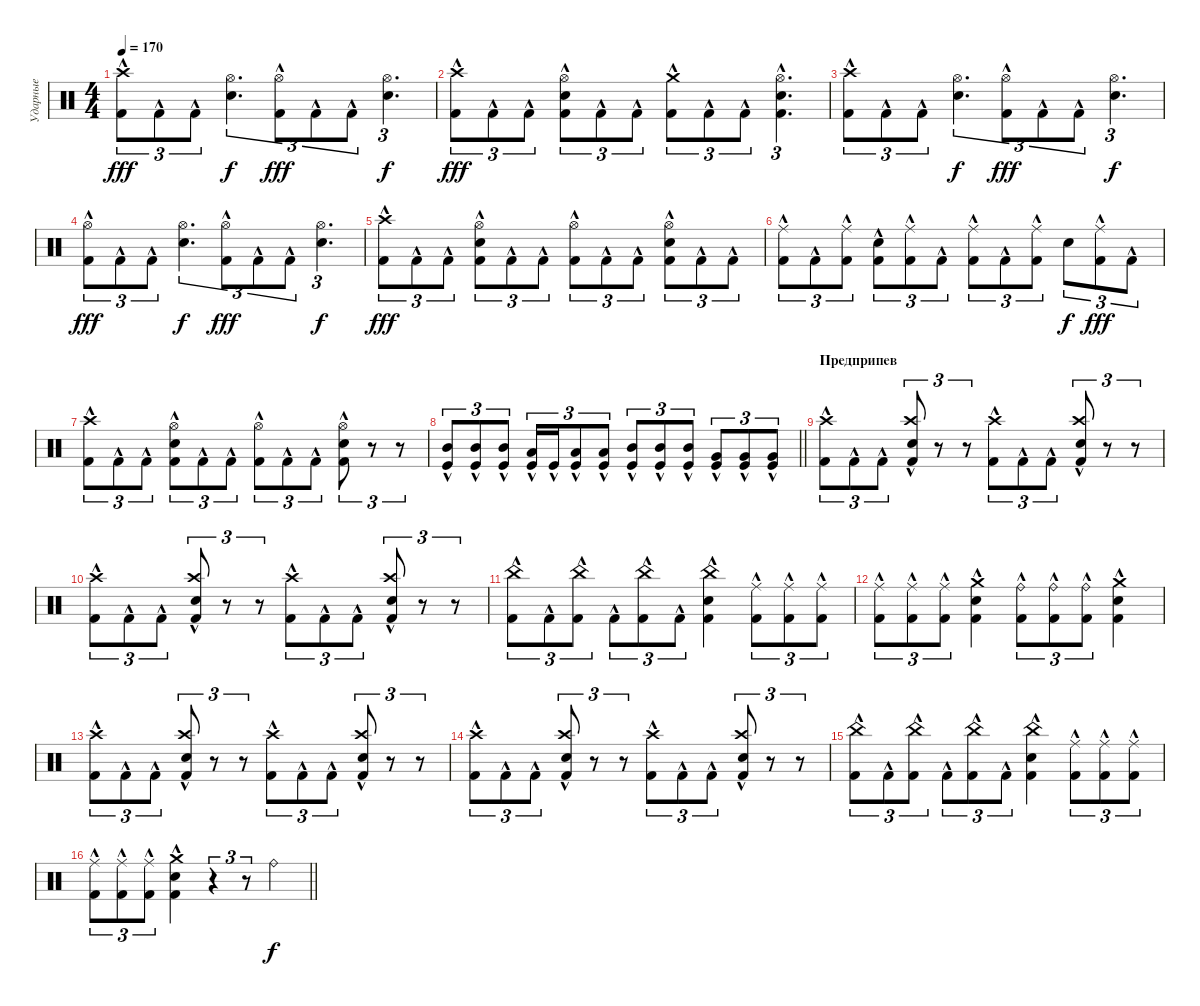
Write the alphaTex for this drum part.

\track ("Ударные" "Ударные") {instrument percussion}
\staff {score}
\articulation defaults
\ts (4 4)
\tempo 170
\clef neutral
\ks c
("Kick (hit) 2"{hac} "Crash high (hit)").8{tu (3 2) dy fff} "Kick (hit) 2"{hac}.8{tu (3 2)} "Kick (hit) 2"{hac}.8{tu (3 2)} ("Snare (hit) 2" "Hi-Hat (open)").4{d tu (3 2) dy f} ("Kick (hit) 2"{hac} "Hi-Hat (open)").8{tu (3 2) dy fff} "Kick (hit) 2"{hac}.8{tu (3 2)} "Kick (hit) 2"{hac}.8{tu (3 2)} ("Snare (hit) 2" "Hi-Hat (open)").4{d tu (3 2) dy f} |
("Kick (hit) 2"{hac} "Crash high (hit)").8{tu (3 2) dy fff} "Kick (hit) 2"{hac}.8{tu (3 2)} "Kick (hit) 2"{hac}.8{tu (3 2)} ("Kick (hit) 2"{hac} "Snare (hit) 2" "Hi-Hat (open)").8{tu (3 2)} "Kick (hit) 2"{hac}.8{tu (3 2)} "Kick (hit) 2"{hac}.8{tu (3 2)} ("Kick (hit) 2"{hac} "Crash medium (hit)").8{tu (3 2)} "Kick (hit) 2"{hac}.8{tu (3 2)} "Kick (hit) 2"{hac}.8{tu (3 2)} ("Kick (hit) 2"{hac} "Snare (hit) 2" "Hi-Hat (open)").4{d tu (3 2)} |
("Kick (hit) 2"{hac} "Crash high (hit)").8{tu (3 2)} "Kick (hit) 2"{hac}.8{tu (3 2)} "Kick (hit) 2"{hac}.8{tu (3 2)} ("Snare (hit) 2" "Hi-Hat (open)").4{d tu (3 2) dy f} ("Kick (hit) 2"{hac} "Hi-Hat (open)").8{tu (3 2) dy fff} "Kick (hit) 2"{hac}.8{tu (3 2)} "Kick (hit) 2"{hac}.8{tu (3 2)} ("Snare (hit) 2" "Hi-Hat (open)").4{d tu (3 2) dy f} |
("Kick (hit) 2"{hac} "Hi-Hat (open)").8{tu (3 2) dy fff} "Kick (hit) 2"{hac}.8{tu (3 2)} "Kick (hit) 2"{hac}.8{tu (3 2)} ("Snare (hit) 2" "Hi-Hat (open)").4{d tu (3 2) dy f} ("Kick (hit) 2"{hac} "Hi-Hat (open)").8{tu (3 2) dy fff} "Kick (hit) 2"{hac}.8{tu (3 2)} "Kick (hit) 2"{hac}.8{tu (3 2)} ("Snare (hit) 2" "Hi-Hat (open)").4{d tu (3 2) dy f} |
("Kick (hit) 2"{hac} "Crash high (hit)").8{tu (3 2) dy fff} "Kick (hit) 2"{hac}.8{tu (3 2)} "Kick (hit) 2"{hac}.8{tu (3 2)} ("Kick (hit) 2"{hac} "Snare (hit) 2" "Hi-Hat (open)").8{tu (3 2)} "Kick (hit) 2"{hac}.8{tu (3 2)} "Kick (hit) 2"{hac}.8{tu (3 2)} ("Kick (hit) 2"{hac} "Hi-Hat (open)").8{tu (3 2)} "Kick (hit) 2"{hac}.8{tu (3 2)} "Kick (hit) 2"{hac}.8{tu (3 2)} ("Kick (hit) 2"{hac} "Snare (hit) 2" "Hi-Hat (open)").8{tu (3 2)} "Kick (hit) 2"{hac}.8{tu (3 2)} "Kick (hit) 2"{hac}.8{tu (3 2)} |
("Kick (hit) 2"{hac} "Ride (middle)"{hac}).8{tu (3 2)} "Kick (hit) 2"{hac}.8{tu (3 2)} ("Ride (middle)"{hac} "Kick (hit) 2"{hac}).8{tu (3 2)} ("Kick (hit) 2"{hac} "Snare (hit) 2").8{tu (3 2)} ("Ride (middle)"{hac} "Kick (hit) 2"{hac}).8{tu (3 2)} "Kick (hit) 2"{hac}.8{tu (3 2)} ("Kick (hit) 2"{hac} "Ride (middle)"{hac}).8{tu (3 2)} "Kick (hit) 2"{hac}.8{tu (3 2)} ("Ride (middle)"{hac} "Kick (hit) 2"{hac}).8{tu (3 2)} "Snare (hit) 2".8{tu (3 2) dy f} ("Ride (middle)"{hac} "Kick (hit) 2"{hac}).8{tu (3 2) dy fff} "Kick (hit) 2"{hac}.8{tu (3 2)} |
("Kick (hit) 2"{hac} "Crash high (hit)").8{tu (3 2)} "Kick (hit) 2"{hac}.8{tu (3 2)} "Kick (hit) 2"{hac}.8{tu (3 2)} ("Kick (hit) 2"{hac} "Snare (hit) 2" "Hi-Hat (open)").8{tu (3 2)} "Kick (hit) 2"{hac}.8{tu (3 2)} "Kick (hit) 2"{hac}.8{tu (3 2)} ("Kick (hit) 2"{hac} "Hi-Hat (open)").8{tu (3 2)} "Kick (hit) 2"{hac}.8{tu (3 2)} "Kick (hit) 2"{hac}.8{tu (3 2)} ("Kick (hit) 2"{hac} "Snare (hit) 2" "Hi-Hat (open)").8{tu (3 2)} r.8{tu (3 2)} r.8{tu (3 2)} |
\barLineRight lightlight
("Mid Tom (hit)"{hac} "Kick (hit)"{hac}).8{tu (3 2)} ("Mid Tom (hit)"{hac} "Kick (hit)"{hac}).8{tu (3 2)} ("Mid Tom (hit)"{hac} "Kick (hit)"{hac}).8{tu (3 2)} ("Low Tom (hit)"{hac} "Kick (hit)"{hac}).16{tu (3 2)} "Kick (hit)"{hac}.16{tu (3 2)} ("Low Tom (hit)"{hac} "Kick (hit)"{hac}).8{tu (3 2)} ("Low Tom (hit)"{hac} "Kick (hit)"{hac}).8{tu (3 2)} ("Mid Tom (hit)"{hac} "Kick (hit)"{hac}).8{tu (3 2)} ("Mid Tom (hit)"{hac} "Kick (hit)"{hac}).8{tu (3 2)} ("Mid Tom (hit)"{hac} "Kick (hit)"{hac}).8{tu (3 2)} ("Very Low Tom (hit)"{hac} "Kick (hit)"{hac}).8{tu (3 2)} ("Very Low Tom (hit)"{hac} "Kick (hit)"{hac}).8{tu (3 2)} ("Very Low Tom (hit)"{hac} "Kick (hit)"{hac}).8{tu (3 2)} |
\section ("" "Предприпев")
("Kick (hit) 2"{hac} "Crash high (hit)"{hac}).8{tu (3 2)} "Kick (hit) 2"{hac}.8{tu (3 2)} "Kick (hit) 2"{hac}.8{tu (3 2)} ("Kick (hit) 2"{hac} "Snare (hit) 2" "Crash high (hit)").8{tu (3 2)} r.8{tu (3 2)} r.8{tu (3 2)} ("Kick (hit) 2"{hac} "Crash high (hit)").8{tu (3 2)} "Kick (hit) 2"{hac}.8{tu (3 2)} "Kick (hit) 2"{hac}.8{tu (3 2)} ("Kick (hit) 2"{hac} "Snare (hit) 2" "Crash high (hit)").8{tu (3 2)} r.8{tu (3 2)} r.8{tu (3 2)} |
("Kick (hit) 2"{hac} "Crash high (hit)").8{tu (3 2)} "Kick (hit) 2"{hac}.8{tu (3 2)} "Kick (hit) 2"{hac}.8{tu (3 2)} ("Kick (hit) 2"{hac} "Snare (hit) 2" "Crash high (hit)").8{tu (3 2)} r.8{tu (3 2)} r.8{tu (3 2)} ("Kick (hit) 2"{hac} "Crash high (hit)").8{tu (3 2)} "Kick (hit) 2"{hac}.8{tu (3 2)} "Kick (hit) 2"{hac}.8{tu (3 2)} ("Kick (hit) 2"{hac} "Snare (hit) 2" "Crash high (hit)").8{tu (3 2)} r.8{tu (3 2)} r.8{tu (3 2)} |
("Kick (hit) 2"{hac} "China (hit)"{hac}).8{tu (3 2)} "Kick (hit) 2"{hac}.8{tu (3 2)} ("Kick (hit) 2"{hac} "China (hit)"{hac}).8{tu (3 2)} "Kick (hit) 2"{hac}.8{tu (3 2)} ("Kick (hit) 2"{hac} "China (hit)"{hac}).8{tu (3 2)} "Kick (hit) 2"{hac}.8{tu (3 2)} ("Kick (hit) 2"{hac} "China (hit)"{hac} "Snare (hit) 2").4 ("Kick (hit) 2"{hac} "Ride (middle)"{hac}).8{tu (3 2)} ("Kick (hit) 2"{hac} "Ride (middle)"{hac}).8{tu (3 2)} ("Kick (hit) 2"{hac} "Ride (middle)"{hac}).8{tu (3 2)} |
("Kick (hit) 2"{hac} "Ride (middle)"{hac}).8{tu (3 2)} ("Kick (hit) 2"{hac} "Ride (middle)"{hac}).8{tu (3 2)} ("Kick (hit) 2"{hac} "Ride (middle)"{hac}).8{tu (3 2)} ("Kick (hit) 2"{hac} "Crash medium (hit)" "Snare (hit) 2").4 ("Kick (hit) 2"{hac} "Ride (bell)"{hac}).8{tu (3 2)} ("Kick (hit) 2"{hac} "Ride (bell)"{hac}).8{tu (3 2)} ("Kick (hit) 2"{hac} "Ride (bell)"{hac}).8{tu (3 2)} ("Kick (hit) 2"{hac} "Crash medium (hit)" "Snare (hit) 2").4 |
("Kick (hit) 2"{hac} "Crash high (hit)").8{tu (3 2)} "Kick (hit) 2"{hac}.8{tu (3 2)} "Kick (hit) 2"{hac}.8{tu (3 2)} ("Kick (hit) 2"{hac} "Snare (hit) 2" "Crash high (hit)").8{tu (3 2)} r.8{tu (3 2)} r.8{tu (3 2)} ("Kick (hit) 2"{hac} "Crash high (hit)").8{tu (3 2)} "Kick (hit) 2"{hac}.8{tu (3 2)} "Kick (hit) 2"{hac}.8{tu (3 2)} ("Kick (hit) 2"{hac} "Snare (hit) 2" "Crash high (hit)").8{tu (3 2)} r.8{tu (3 2)} r.8{tu (3 2)} |
("Kick (hit) 2"{hac} "Crash high (hit)").8{tu (3 2)} "Kick (hit) 2"{hac}.8{tu (3 2)} "Kick (hit) 2"{hac}.8{tu (3 2)} ("Kick (hit) 2"{hac} "Snare (hit) 2" "Crash high (hit)").8{tu (3 2)} r.8{tu (3 2)} r.8{tu (3 2)} ("Kick (hit) 2"{hac} "Crash high (hit)").8{tu (3 2)} "Kick (hit) 2"{hac}.8{tu (3 2)} "Kick (hit) 2"{hac}.8{tu (3 2)} ("Kick (hit) 2"{hac} "Snare (hit) 2" "Crash high (hit)").8{tu (3 2)} r.8{tu (3 2)} r.8{tu (3 2)} |
("Kick (hit) 2"{hac} "China (hit)"{hac}).8{tu (3 2)} "Kick (hit) 2"{hac}.8{tu (3 2)} ("Kick (hit) 2"{hac} "China (hit)"{hac}).8{tu (3 2)} "Kick (hit) 2"{hac}.8{tu (3 2)} ("Kick (hit) 2"{hac} "China (hit)"{hac}).8{tu (3 2)} "Kick (hit) 2"{hac}.8{tu (3 2)} ("Kick (hit) 2"{hac} "China (hit)"{hac} "Snare (hit) 2").4 ("Kick (hit) 2"{hac} "Ride (middle)"{hac}).8{tu (3 2)} ("Kick (hit) 2"{hac} "Ride (middle)"{hac}).8{tu (3 2)} ("Kick (hit) 2"{hac} "Ride (middle)"{hac}).8{tu (3 2)} |
\barLineRight lightlight
("Kick (hit) 2"{hac} "Ride (middle)"{hac}).8{tu (3 2)} ("Kick (hit) 2"{hac} "Ride (middle)"{hac}).8{tu (3 2)} ("Kick (hit) 2"{hac} "Ride (middle)"{hac}).8{tu (3 2)} ("Kick (hit) 2"{hac} "Crash medium (hit)" "Snare (hit) 2").4 r.4{tu (3 2)} r.8{tu (3 2)} "Ride (bell)".4{dy f}
